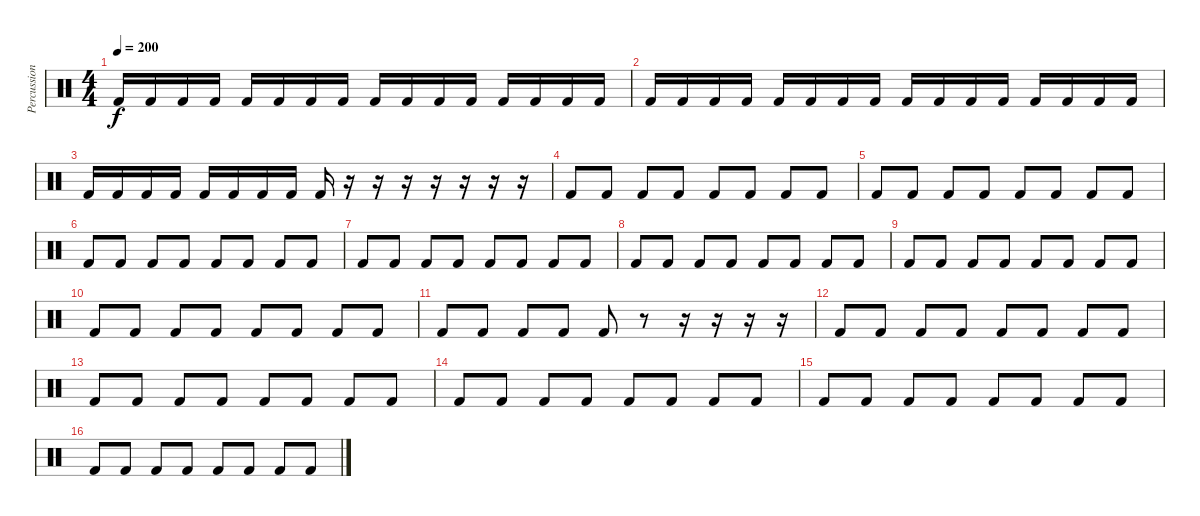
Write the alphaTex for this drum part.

\track ("Percussions 2" "Percussion") {instrument percussion}
\staff {score}
\articulation defaults
\ts (4 4)
\tempo 200
\clef neutral
\ks c "Kick (hit) 2".16{dy f} "Kick (hit) 2".16 "Kick (hit) 2".16 "Kick (hit) 2".16 "Kick (hit) 2".16 "Kick (hit) 2".16 "Kick (hit) 2".16 "Kick (hit) 2".16 "Kick (hit) 2".16 "Kick (hit) 2".16 "Kick (hit) 2".16 "Kick (hit) 2".16 "Kick (hit) 2".16 "Kick (hit) 2".16 "Kick (hit) 2".16 "Kick (hit) 2".16
|
"Kick (hit) 2".16 "Kick (hit) 2".16 "Kick (hit) 2".16 "Kick (hit) 2".16 "Kick (hit) 2".16 "Kick (hit) 2".16 "Kick (hit) 2".16 "Kick (hit) 2".16 "Kick (hit) 2".16 "Kick (hit) 2".16 "Kick (hit) 2".16 "Kick (hit) 2".16 "Kick (hit) 2".16 "Kick (hit) 2".16 "Kick (hit) 2".16 "Kick (hit) 2".16 |
"Kick (hit) 2".16 "Kick (hit) 2".16 "Kick (hit) 2".16 "Kick (hit) 2".16 "Kick (hit) 2".16 "Kick (hit) 2".16 "Kick (hit) 2".16 "Kick (hit) 2".16 "Kick (hit) 2".16 r.16 r.16 r.16 r.16 r.16 r.16 r.16 |
"Kick (hit) 2".8 "Kick (hit) 2".8 "Kick (hit) 2".8 "Kick (hit) 2".8 "Kick (hit) 2".8 "Kick (hit) 2".8 "Kick (hit) 2".8 "Kick (hit) 2".8 |
"Kick (hit) 2".8 "Kick (hit) 2".8 "Kick (hit) 2".8 "Kick (hit) 2".8 "Kick (hit) 2".8 "Kick (hit) 2".8 "Kick (hit) 2".8 "Kick (hit) 2".8 |
"Kick (hit) 2".8 "Kick (hit) 2".8 "Kick (hit) 2".8 "Kick (hit) 2".8 "Kick (hit) 2".8 "Kick (hit) 2".8 "Kick (hit) 2".8 "Kick (hit) 2".8 |
"Kick (hit) 2".8 "Kick (hit) 2".8 "Kick (hit) 2".8 "Kick (hit) 2".8 "Kick (hit) 2".8 "Kick (hit) 2".8 "Kick (hit) 2".8 "Kick (hit) 2".8 |
"Kick (hit) 2".8 "Kick (hit) 2".8 "Kick (hit) 2".8 "Kick (hit) 2".8 "Kick (hit) 2".8 "Kick (hit) 2".8 "Kick (hit) 2".8 "Kick (hit) 2".8 |
"Kick (hit) 2".8 "Kick (hit) 2".8 "Kick (hit) 2".8 "Kick (hit) 2".8 "Kick (hit) 2".8 "Kick (hit) 2".8 "Kick (hit) 2".8 "Kick (hit) 2".8 |
"Kick (hit) 2".8 "Kick (hit) 2".8 "Kick (hit) 2".8 "Kick (hit) 2".8 "Kick (hit) 2".8 "Kick (hit) 2".8 "Kick (hit) 2".8 "Kick (hit) 2".8 |
"Kick (hit) 2".8 "Kick (hit) 2".8 "Kick (hit) 2".8 "Kick (hit) 2".8 "Kick (hit) 2".8 r.8 r.16 r.16 r.16 r.16 |
"Kick (hit) 2".8 "Kick (hit) 2".8 "Kick (hit) 2".8 "Kick (hit) 2".8 "Kick (hit) 2".8 "Kick (hit) 2".8 "Kick (hit) 2".8 "Kick (hit) 2".8 |
"Kick (hit) 2".8 "Kick (hit) 2".8 "Kick (hit) 2".8 "Kick (hit) 2".8 "Kick (hit) 2".8 "Kick (hit) 2".8 "Kick (hit) 2".8 "Kick (hit) 2".8 |
"Kick (hit) 2".8 "Kick (hit) 2".8 "Kick (hit) 2".8 "Kick (hit) 2".8 "Kick (hit) 2".8 "Kick (hit) 2".8 "Kick (hit) 2".8 "Kick (hit) 2".8 |
"Kick (hit) 2".8 "Kick (hit) 2".8 "Kick (hit) 2".8 "Kick (hit) 2".8 "Kick (hit) 2".8 "Kick (hit) 2".8 "Kick (hit) 2".8 "Kick (hit) 2".8 |
"Kick (hit) 2".8 "Kick (hit) 2".8 "Kick (hit) 2".8 "Kick (hit) 2".8 "Kick (hit) 2".8 "Kick (hit) 2".8 "Kick (hit) 2".8 "Kick (hit) 2".8
